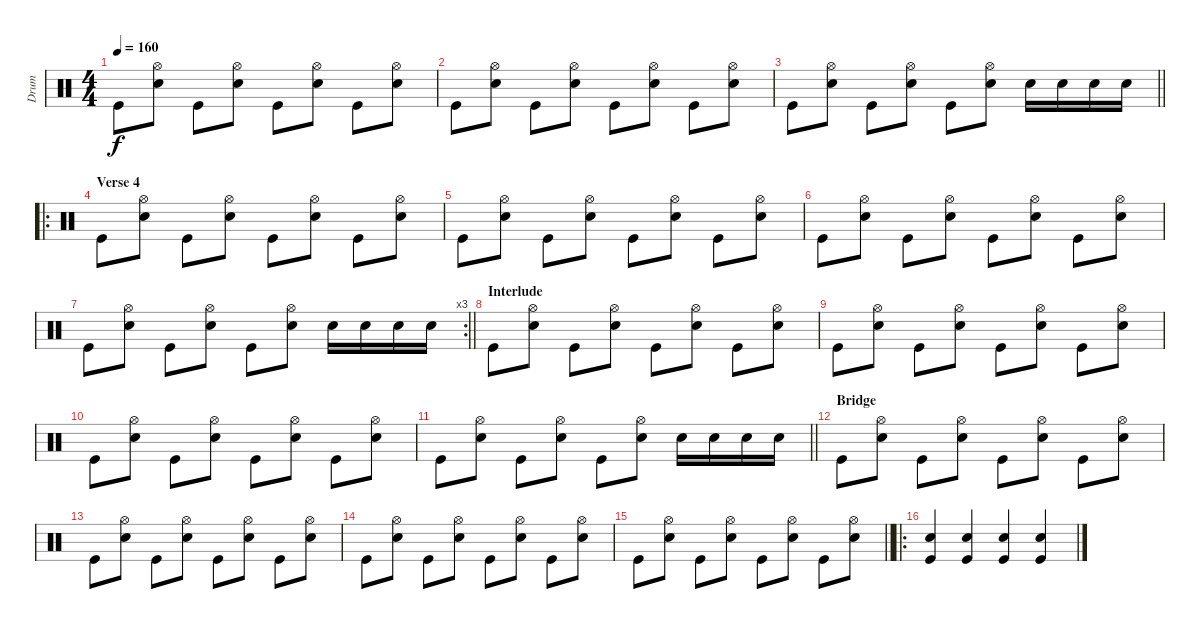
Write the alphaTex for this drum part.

\track ("Drum" "Drum") {instrument percussion}
\staff {score}
\articulation defaults
\ts (4 4)
\tempo 160
\clef neutral
\ks c "Kick (hit)".8{dy f}
("Hi-Hat (open)" "Electric Snare (hit)").8 "Kick (hit)".8 ("Hi-Hat (open)" "Electric Snare (hit)").8 "Kick (hit)".8 ("Hi-Hat (open)" "Electric Snare (hit)").8 "Kick (hit)".8 ("Hi-Hat (open)" "Electric Snare (hit)").8 |
"Kick (hit)".8 ("Hi-Hat (open)" "Electric Snare (hit)").8 "Kick (hit)".8 ("Hi-Hat (open)" "Electric Snare (hit)").8 "Kick (hit)".8 ("Hi-Hat (open)" "Electric Snare (hit)").8 "Kick (hit)".8 ("Hi-Hat (open)" "Electric Snare (hit)").8 |
\barLineRight lightlight "Kick (hit)".8
("Hi-Hat (open)" "Electric Snare (hit)").8 "Kick (hit)".8 ("Hi-Hat (open)" "Electric Snare (hit)").8 "Kick (hit)".8 ("Hi-Hat (open)" "Electric Snare (hit)").8 "Electric Snare (hit)".16 "Electric Snare (hit)".16 "Electric Snare (hit)".16 "Electric Snare (hit)".16 |
\ro
\section ("" "Verse 4")
"Kick (hit)".8 ("Hi-Hat (open)" "Electric Snare (hit)").8 "Kick (hit)".8 ("Hi-Hat (open)" "Electric Snare (hit)").8 "Kick (hit)".8 ("Hi-Hat (open)" "Electric Snare (hit)").8 "Kick (hit)".8 ("Hi-Hat (open)" "Electric Snare (hit)").8 |
"Kick (hit)".8 ("Hi-Hat (open)" "Electric Snare (hit)").8 "Kick (hit)".8 ("Hi-Hat (open)" "Electric Snare (hit)").8 "Kick (hit)".8 ("Hi-Hat (open)" "Electric Snare (hit)").8 "Kick (hit)".8 ("Hi-Hat (open)" "Electric Snare (hit)").8 |
"Kick (hit)".8 ("Hi-Hat (open)" "Electric Snare (hit)").8 "Kick (hit)".8 ("Hi-Hat (open)" "Electric Snare (hit)").8 "Kick (hit)".8 ("Hi-Hat (open)" "Electric Snare (hit)").8 "Kick (hit)".8 ("Hi-Hat (open)" "Electric Snare (hit)").8 |
\rc 3
\barLineRight lightlight "Kick (hit)".8
("Hi-Hat (open)" "Electric Snare (hit)").8 "Kick (hit)".8 ("Hi-Hat (open)" "Electric Snare (hit)").8 "Kick (hit)".8 ("Hi-Hat (open)" "Electric Snare (hit)").8 "Electric Snare (hit)".16 "Electric Snare (hit)".16 "Electric Snare (hit)".16 "Electric Snare (hit)".16 |
\section ("" "Interlude")
"Kick (hit)".8 ("Hi-Hat (open)" "Electric Snare (hit)").8 "Kick (hit)".8 ("Hi-Hat (open)" "Electric Snare (hit)").8 "Kick (hit)".8 ("Hi-Hat (open)" "Electric Snare (hit)").8 "Kick (hit)".8 ("Hi-Hat (open)" "Electric Snare (hit)").8 |
"Kick (hit)".8 ("Hi-Hat (open)" "Electric Snare (hit)").8 "Kick (hit)".8 ("Hi-Hat (open)" "Electric Snare (hit)").8 "Kick (hit)".8 ("Hi-Hat (open)" "Electric Snare (hit)").8 "Kick (hit)".8 ("Hi-Hat (open)" "Electric Snare (hit)").8 |
"Kick (hit)".8 ("Hi-Hat (open)" "Electric Snare (hit)").8 "Kick (hit)".8 ("Hi-Hat (open)" "Electric Snare (hit)").8 "Kick (hit)".8 ("Hi-Hat (open)" "Electric Snare (hit)").8 "Kick (hit)".8 ("Hi-Hat (open)" "Electric Snare (hit)").8 |
\barLineRight lightlight "Kick (hit)".8
("Hi-Hat (open)" "Electric Snare (hit)").8 "Kick (hit)".8 ("Hi-Hat (open)" "Electric Snare (hit)").8 "Kick (hit)".8 ("Hi-Hat (open)" "Electric Snare (hit)").8 "Electric Snare (hit)".16 "Electric Snare (hit)".16 "Electric Snare (hit)".16 "Electric Snare (hit)".16 |
\section ("" "Bridge")
"Kick (hit)".8 ("Hi-Hat (open)" "Electric Snare (hit)").8 "Kick (hit)".8 ("Hi-Hat (open)" "Electric Snare (hit)").8 "Kick (hit)".8 ("Hi-Hat (open)" "Electric Snare (hit)").8 "Kick (hit)".8 ("Hi-Hat (open)" "Electric Snare (hit)").8 |
"Kick (hit)".8 ("Hi-Hat (open)" "Electric Snare (hit)").8 "Kick (hit)".8 ("Hi-Hat (open)" "Electric Snare (hit)").8 "Kick (hit)".8 ("Hi-Hat (open)" "Electric Snare (hit)").8 "Kick (hit)".8 ("Hi-Hat (open)" "Electric Snare (hit)").8 |
"Kick (hit)".8 ("Hi-Hat (open)" "Electric Snare (hit)").8 "Kick (hit)".8 ("Hi-Hat (open)" "Electric Snare (hit)").8 "Kick (hit)".8 ("Hi-Hat (open)" "Electric Snare (hit)").8 "Kick (hit)".8 ("Hi-Hat (open)" "Electric Snare (hit)").8 |
\barLineRight lightlight "Kick (hit)".8
("Hi-Hat (open)" "Electric Snare (hit)").8 "Kick (hit)".8 ("Hi-Hat (open)" "Electric Snare (hit)").8 "Kick (hit)".8 ("Hi-Hat (open)" "Electric Snare (hit)").8 "Kick (hit)".8 ("Hi-Hat (open)" "Electric Snare (hit)").8 |
\ro
("Electric Snare (hit)" "Kick (hit)").4 ("Electric Snare (hit)" "Kick (hit)").4 ("Electric Snare (hit)" "Kick (hit)").4 ("Electric Snare (hit)" "Kick (hit)").4
